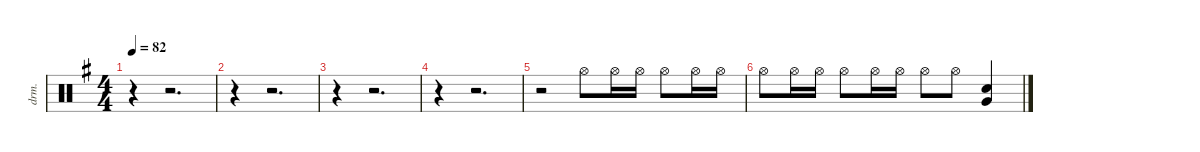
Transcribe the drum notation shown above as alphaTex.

\defaultSystemsLayout 4
\hideDynamics
\bracketExtendMode nobrackets
\track ("Drums" "drm.") {instrument percussion}
\staff {score}
\articulation defaults
\ts (4 4)
\tempo 82
\clef neutral
\ks eminor
r.4{dy f beam Down} r.2{d beam Down} |
r.4{beam Down} r.2{d beam Down} |
r.4{beam Down} r.2{d beam Down} |
r.4{beam Down} r.2{d beam Down} |
r.2{beam Down} "Hi-Hat (open)"{acc forcenatural}.8{beam Down} "Hi-Hat (open)"{acc forcenatural}.16{beam Down} "Hi-Hat (open)"{acc forcenatural}.16{beam Down} "Hi-Hat (open)"{acc forcenatural}.8{beam Down} "Hi-Hat (open)"{acc forcenatural}.16{beam Down} "Hi-Hat (open)"{acc forcenatural}.16{beam Down} |
"Hi-Hat (open)"{acc forcenatural}.8{beam Down} "Hi-Hat (open)"{acc forcenatural}.16{beam Down} "Hi-Hat (open)"{acc forcenatural}.16{beam Down} "Hi-Hat (open)"{acc forcenatural}.8{beam Down} "Hi-Hat (open)"{acc forcenatural}.16{beam Down} "Hi-Hat (open)"{acc forcenatural}.16{beam Down} "Hi-Hat (open)"{acc forcenatural}.8{beam Down} "Hi-Hat (open)"{acc forcenatural}.8{beam Down} ("Snare (hit) 2"{acc forcenatural} "Very Low Tom (hit)"{acc forcenatural}).4{beam Up}
